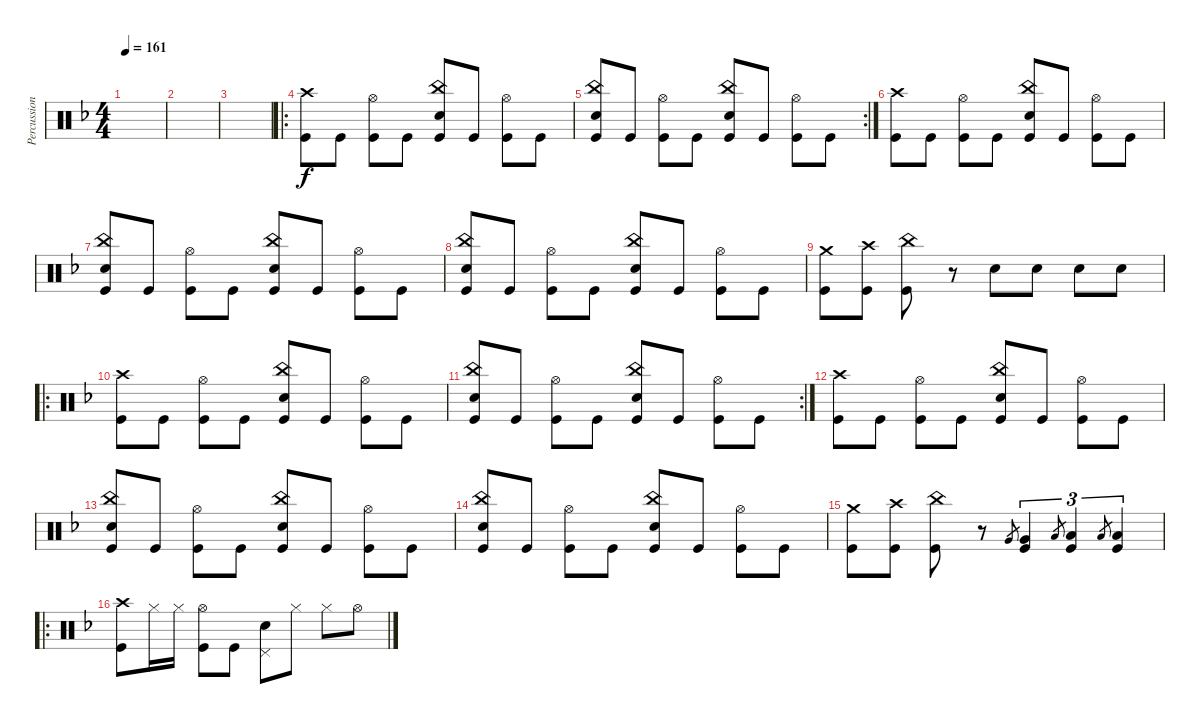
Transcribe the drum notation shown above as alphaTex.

\track ("Percussion" "Percussion") {instrument percussion}
\staff {score}
\articulation defaults
\ts (4 4)
\tempo 161
\clef neutral
\ks f
|
|
|
\ro
("Crash high (hit)" "Kick (hit)").8 "Kick (hit)".8 ("Hi-Hat (open)" "Kick (hit)").8 "Kick (hit)".8 ("China (hit)" "Electric Snare (hit)" "Kick (hit)").8 "Kick (hit)".8 ("Hi-Hat (open)" "Kick (hit)").8 "Kick (hit)".8 |
\rc 2
("China (hit)" "Electric Snare (hit)" "Kick (hit)").8 "Kick (hit)".8 ("Hi-Hat (open)" "Kick (hit)").8 "Kick (hit)".8 ("China (hit)" "Electric Snare (hit)" "Kick (hit)").8 "Kick (hit)".8 ("Hi-Hat (open)" "Kick (hit)").8 "Kick (hit)".8 |
("Crash high (hit)" "Kick (hit)").8 "Kick (hit)".8 ("Hi-Hat (open)" "Kick (hit)").8 "Kick (hit)".8 ("China (hit)" "Electric Snare (hit)" "Kick (hit)").8 "Kick (hit)".8 ("Hi-Hat (open)" "Kick (hit)").8 "Kick (hit)".8 |
("China (hit)" "Electric Snare (hit)" "Kick (hit)").8 "Kick (hit)".8 ("Hi-Hat (open)" "Kick (hit)").8 "Kick (hit)".8 ("China (hit)" "Electric Snare (hit)" "Kick (hit)").8 "Kick (hit)".8 ("Hi-Hat (open)" "Kick (hit)").8 "Kick (hit)".8 |
("China (hit)" "Electric Snare (hit)" "Kick (hit)").8 "Kick (hit)".8 ("Hi-Hat (open)" "Kick (hit)").8 "Kick (hit)".8 ("China (hit)" "Electric Snare (hit)" "Kick (hit)").8 "Kick (hit)".8 ("Hi-Hat (open)" "Kick (hit)").8 "Kick (hit)".8 |
("Crash medium (hit)" "Kick (hit)").8 ("Crash high (hit)" "Kick (hit)").8 ("China (hit)" "Kick (hit)").8 r.8 "Electric Snare (hit)".8 "Electric Snare (hit)".8 "Electric Snare (hit)".8 "Electric Snare (hit)".8 |
\ro
("Crash high (hit)" "Kick (hit)").8 "Kick (hit)".8 ("Hi-Hat (open)" "Kick (hit)").8 "Kick (hit)".8 ("China (hit)" "Electric Snare (hit)" "Kick (hit)").8 "Kick (hit)".8 ("Hi-Hat (open)" "Kick (hit)").8 "Kick (hit)".8 |
\rc 2
("China (hit)" "Electric Snare (hit)" "Kick (hit)").8 "Kick (hit)".8 ("Hi-Hat (open)" "Kick (hit)").8 "Kick (hit)".8 ("China (hit)" "Electric Snare (hit)" "Kick (hit)").8 "Kick (hit)".8 ("Hi-Hat (open)" "Kick (hit)").8 "Kick (hit)".8 |
("Crash high (hit)" "Kick (hit)").8 "Kick (hit)".8 ("Hi-Hat (open)" "Kick (hit)").8 "Kick (hit)".8 ("China (hit)" "Electric Snare (hit)" "Kick (hit)").8 "Kick (hit)".8 ("Hi-Hat (open)" "Kick (hit)").8 "Kick (hit)".8 |
("China (hit)" "Electric Snare (hit)" "Kick (hit)").8 "Kick (hit)".8 ("Hi-Hat (open)" "Kick (hit)").8 "Kick (hit)".8 ("China (hit)" "Electric Snare (hit)" "Kick (hit)").8 "Kick (hit)".8 ("Hi-Hat (open)" "Kick (hit)").8 "Kick (hit)".8 |
("China (hit)" "Electric Snare (hit)" "Kick (hit)").8 "Kick (hit)".8 ("Hi-Hat (open)" "Kick (hit)").8 "Kick (hit)".8 ("China (hit)" "Electric Snare (hit)" "Kick (hit)").8 "Kick (hit)".8 ("Hi-Hat (open)" "Kick (hit)").8 "Kick (hit)".8 |
("Crash medium (hit)" "Kick (hit)").8 ("Crash high (hit)" "Kick (hit)").8 ("China (hit)" "Kick (hit)").8 r.8 "Very Low Tom (hit)".8{gr} ("Very Low Tom (hit)" "Kick (hit)").4{tu (3 2)} "Low Floor Tom (hit)".8{gr} ("Low Floor Tom (hit)" "Kick (hit)").4{tu (3 2)} "Low Floor Tom (hit)".8{gr} ("Low Floor Tom (hit)" "Kick (hit)").4{tu (3 2)} |
\ro
("Crash high (hit)" "Kick (hit)").8 "Hi-Hat (closed)".16 "Hi-Hat (closed)".16 ("Hi-Hat (open)" "Kick (hit)").8 "Kick (hit)".8 ("Pedal Hi-Hat (hit)" "Electric Snare (hit)").8 "Hi-Hat (closed)".8 "Hi-Hat (closed)".8 "Hi-Hat (open)".8
